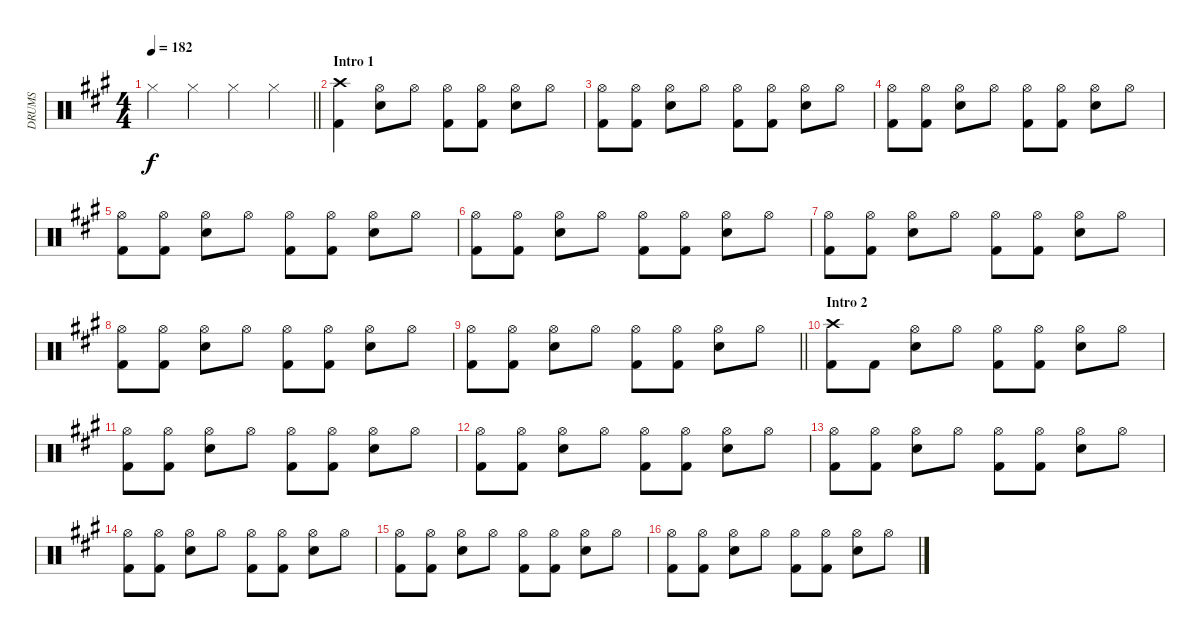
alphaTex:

\track ("DRUMS" "DRUMS") {instrument percussion}
\staff {score}
\articulation defaults
\ts (4 4)
\tempo 182
\clef neutral
\barLineRight lightlight
\ks a "Hi-Hat (closed)".4{dy f} "Hi-Hat (closed)".4 "Hi-Hat (closed)".4 "Hi-Hat (closed)".4
|
\section ("" "Intro 1")
("Crash high (hit)" "Kick (hit) 2").4 ("Hi-Hat (open)" "Snare (hit) 2").8 "Hi-Hat (open)".8 ("Hi-Hat (open)" "Kick (hit) 2").8 ("Hi-Hat (open)" "Kick (hit) 2").8 ("Hi-Hat (open)" "Snare (hit) 2").8 "Hi-Hat (open)".8 |
("Hi-Hat (open)" "Kick (hit) 2").8 ("Hi-Hat (open)" "Kick (hit) 2").8 ("Hi-Hat (open)" "Snare (hit) 2").8 "Hi-Hat (open)".8 ("Hi-Hat (open)" "Kick (hit) 2").8 ("Hi-Hat (open)" "Kick (hit) 2").8 ("Hi-Hat (open)" "Snare (hit) 2").8 "Hi-Hat (open)".8 |
("Hi-Hat (open)" "Kick (hit) 2").8 ("Hi-Hat (open)" "Kick (hit) 2").8 ("Hi-Hat (open)" "Snare (hit) 2").8 "Hi-Hat (open)".8 ("Hi-Hat (open)" "Kick (hit) 2").8 ("Hi-Hat (open)" "Kick (hit) 2").8 ("Hi-Hat (open)" "Snare (hit) 2").8 "Hi-Hat (open)".8 |
("Hi-Hat (open)" "Kick (hit) 2").8 ("Hi-Hat (open)" "Kick (hit) 2").8 ("Hi-Hat (open)" "Snare (hit) 2").8 "Hi-Hat (open)".8 ("Hi-Hat (open)" "Kick (hit) 2").8 ("Hi-Hat (open)" "Kick (hit) 2").8 ("Hi-Hat (open)" "Snare (hit) 2").8 "Hi-Hat (open)".8 |
("Hi-Hat (open)" "Kick (hit) 2").8 ("Hi-Hat (open)" "Kick (hit) 2").8 ("Hi-Hat (open)" "Snare (hit) 2").8 "Hi-Hat (open)".8 ("Hi-Hat (open)" "Kick (hit) 2").8 ("Hi-Hat (open)" "Kick (hit) 2").8 ("Hi-Hat (open)" "Snare (hit) 2").8 "Hi-Hat (open)".8 |
("Hi-Hat (open)" "Kick (hit) 2").8 ("Hi-Hat (open)" "Kick (hit) 2").8 ("Hi-Hat (open)" "Snare (hit) 2").8 "Hi-Hat (open)".8 ("Hi-Hat (open)" "Kick (hit) 2").8 ("Hi-Hat (open)" "Kick (hit) 2").8 ("Hi-Hat (open)" "Snare (hit) 2").8 "Hi-Hat (open)".8 |
("Hi-Hat (open)" "Kick (hit) 2").8 ("Hi-Hat (open)" "Kick (hit) 2").8 ("Hi-Hat (open)" "Snare (hit) 2").8 "Hi-Hat (open)".8 ("Hi-Hat (open)" "Kick (hit) 2").8 ("Hi-Hat (open)" "Kick (hit) 2").8 ("Hi-Hat (open)" "Snare (hit) 2").8 "Hi-Hat (open)".8 |
\barLineRight lightlight
("Hi-Hat (open)" "Kick (hit) 2").8 ("Hi-Hat (open)" "Kick (hit) 2").8 ("Hi-Hat (open)" "Snare (hit) 2").8 "Hi-Hat (open)".8 ("Hi-Hat (open)" "Kick (hit) 2").8 ("Hi-Hat (open)" "Kick (hit) 2").8 ("Hi-Hat (open)" "Snare (hit) 2").8 "Hi-Hat (open)".8 |
\section ("" "Intro 2")
("Crash high (hit)" "Kick (hit) 2").8 "Kick (hit) 2".8 ("Hi-Hat (open)" "Snare (hit) 2").8 "Hi-Hat (open)".8 ("Hi-Hat (open)" "Kick (hit) 2").8 ("Hi-Hat (open)" "Kick (hit) 2").8 ("Hi-Hat (open)" "Snare (hit) 2").8 "Hi-Hat (open)".8 |
("Hi-Hat (open)" "Kick (hit) 2").8 ("Hi-Hat (open)" "Kick (hit) 2").8 ("Hi-Hat (open)" "Snare (hit) 2").8 "Hi-Hat (open)".8 ("Hi-Hat (open)" "Kick (hit) 2").8 ("Hi-Hat (open)" "Kick (hit) 2").8 ("Hi-Hat (open)" "Snare (hit) 2").8 "Hi-Hat (open)".8 |
("Hi-Hat (open)" "Kick (hit) 2").8 ("Hi-Hat (open)" "Kick (hit) 2").8 ("Hi-Hat (open)" "Snare (hit) 2").8 "Hi-Hat (open)".8 ("Hi-Hat (open)" "Kick (hit) 2").8 ("Hi-Hat (open)" "Kick (hit) 2").8 ("Hi-Hat (open)" "Snare (hit) 2").8 "Hi-Hat (open)".8 |
("Hi-Hat (open)" "Kick (hit) 2").8 ("Hi-Hat (open)" "Kick (hit) 2").8 ("Hi-Hat (open)" "Snare (hit) 2").8 "Hi-Hat (open)".8 ("Hi-Hat (open)" "Kick (hit) 2").8 ("Hi-Hat (open)" "Kick (hit) 2").8 ("Hi-Hat (open)" "Snare (hit) 2").8 "Hi-Hat (open)".8 |
("Hi-Hat (open)" "Kick (hit) 2").8 ("Hi-Hat (open)" "Kick (hit) 2").8 ("Hi-Hat (open)" "Snare (hit) 2").8 "Hi-Hat (open)".8 ("Hi-Hat (open)" "Kick (hit) 2").8 ("Hi-Hat (open)" "Kick (hit) 2").8 ("Hi-Hat (open)" "Snare (hit) 2").8 "Hi-Hat (open)".8 |
("Hi-Hat (open)" "Kick (hit) 2").8 ("Hi-Hat (open)" "Kick (hit) 2").8 ("Hi-Hat (open)" "Snare (hit) 2").8 "Hi-Hat (open)".8 ("Hi-Hat (open)" "Kick (hit) 2").8 ("Hi-Hat (open)" "Kick (hit) 2").8 ("Hi-Hat (open)" "Snare (hit) 2").8 "Hi-Hat (open)".8 |
("Hi-Hat (open)" "Kick (hit) 2").8 ("Hi-Hat (open)" "Kick (hit) 2").8 ("Hi-Hat (open)" "Snare (hit) 2").8 "Hi-Hat (open)".8 ("Hi-Hat (open)" "Kick (hit) 2").8 ("Hi-Hat (open)" "Kick (hit) 2").8 ("Hi-Hat (open)" "Snare (hit) 2").8 "Hi-Hat (open)".8
